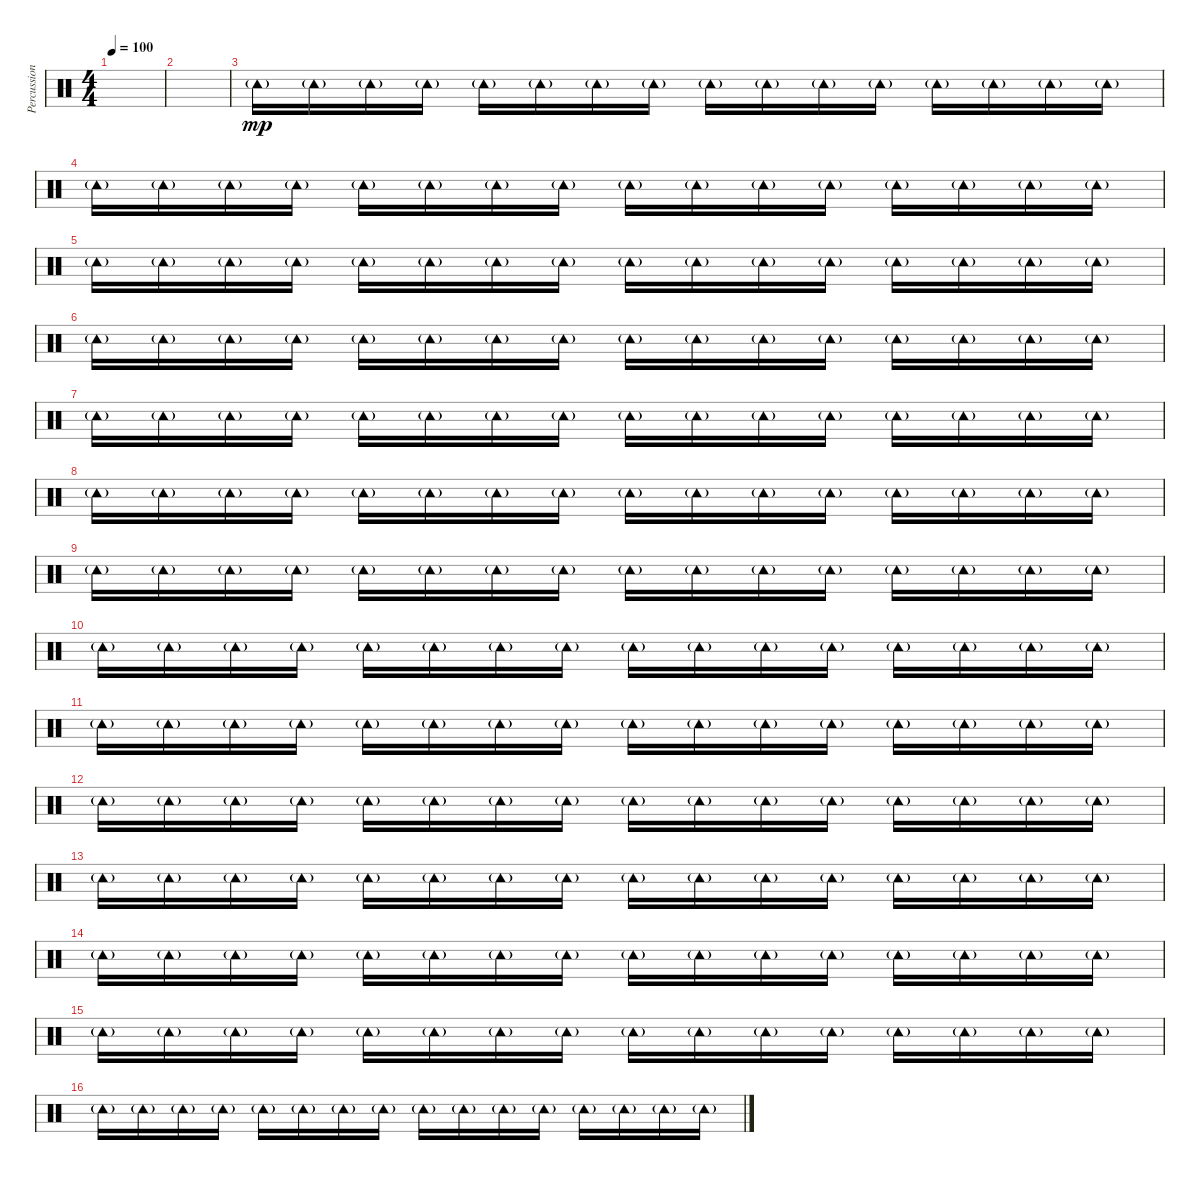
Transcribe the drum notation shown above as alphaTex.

\track ("Percussion" "Percussion") {instrument percussion}
\staff {score}
\articulation defaults
\ts (4 4)
\tempo 100
\clef neutral
\ks c
|
|
"Tambourine (hit)"{g}.16{dy mp} "Tambourine (hit)"{g}.16 "Tambourine (hit)"{g}.16 "Tambourine (hit)"{g}.16 "Tambourine (hit)"{g}.16 "Tambourine (hit)"{g}.16 "Tambourine (hit)"{g}.16 "Tambourine (hit)"{g}.16 "Tambourine (hit)"{g}.16 "Tambourine (hit)"{g}.16 "Tambourine (hit)"{g}.16 "Tambourine (hit)"{g}.16 "Tambourine (hit)"{g}.16 "Tambourine (hit)"{g}.16 "Tambourine (hit)"{g}.16 "Tambourine (hit)"{g}.16 |
"Tambourine (hit)"{g}.16 "Tambourine (hit)"{g}.16 "Tambourine (hit)"{g}.16 "Tambourine (hit)"{g}.16 "Tambourine (hit)"{g}.16 "Tambourine (hit)"{g}.16 "Tambourine (hit)"{g}.16 "Tambourine (hit)"{g}.16 "Tambourine (hit)"{g}.16 "Tambourine (hit)"{g}.16 "Tambourine (hit)"{g}.16 "Tambourine (hit)"{g}.16 "Tambourine (hit)"{g}.16 "Tambourine (hit)"{g}.16 "Tambourine (hit)"{g}.16 "Tambourine (hit)"{g}.16 |
"Tambourine (hit)"{g}.16 "Tambourine (hit)"{g}.16 "Tambourine (hit)"{g}.16 "Tambourine (hit)"{g}.16 "Tambourine (hit)"{g}.16 "Tambourine (hit)"{g}.16 "Tambourine (hit)"{g}.16 "Tambourine (hit)"{g}.16 "Tambourine (hit)"{g}.16 "Tambourine (hit)"{g}.16 "Tambourine (hit)"{g}.16 "Tambourine (hit)"{g}.16 "Tambourine (hit)"{g}.16 "Tambourine (hit)"{g}.16 "Tambourine (hit)"{g}.16 "Tambourine (hit)"{g}.16 |
"Tambourine (hit)"{g}.16 "Tambourine (hit)"{g}.16 "Tambourine (hit)"{g}.16 "Tambourine (hit)"{g}.16 "Tambourine (hit)"{g}.16 "Tambourine (hit)"{g}.16 "Tambourine (hit)"{g}.16 "Tambourine (hit)"{g}.16 "Tambourine (hit)"{g}.16 "Tambourine (hit)"{g}.16 "Tambourine (hit)"{g}.16 "Tambourine (hit)"{g}.16 "Tambourine (hit)"{g}.16 "Tambourine (hit)"{g}.16 "Tambourine (hit)"{g}.16 "Tambourine (hit)"{g}.16 |
"Tambourine (hit)"{g}.16 "Tambourine (hit)"{g}.16 "Tambourine (hit)"{g}.16 "Tambourine (hit)"{g}.16 "Tambourine (hit)"{g}.16 "Tambourine (hit)"{g}.16 "Tambourine (hit)"{g}.16 "Tambourine (hit)"{g}.16 "Tambourine (hit)"{g}.16 "Tambourine (hit)"{g}.16 "Tambourine (hit)"{g}.16 "Tambourine (hit)"{g}.16 "Tambourine (hit)"{g}.16 "Tambourine (hit)"{g}.16 "Tambourine (hit)"{g}.16 "Tambourine (hit)"{g}.16 |
"Tambourine (hit)"{g}.16 "Tambourine (hit)"{g}.16 "Tambourine (hit)"{g}.16 "Tambourine (hit)"{g}.16 "Tambourine (hit)"{g}.16 "Tambourine (hit)"{g}.16 "Tambourine (hit)"{g}.16 "Tambourine (hit)"{g}.16 "Tambourine (hit)"{g}.16 "Tambourine (hit)"{g}.16 "Tambourine (hit)"{g}.16 "Tambourine (hit)"{g}.16 "Tambourine (hit)"{g}.16 "Tambourine (hit)"{g}.16 "Tambourine (hit)"{g}.16 "Tambourine (hit)"{g}.16 |
"Tambourine (hit)"{g}.16 "Tambourine (hit)"{g}.16 "Tambourine (hit)"{g}.16 "Tambourine (hit)"{g}.16 "Tambourine (hit)"{g}.16 "Tambourine (hit)"{g}.16 "Tambourine (hit)"{g}.16 "Tambourine (hit)"{g}.16 "Tambourine (hit)"{g}.16 "Tambourine (hit)"{g}.16 "Tambourine (hit)"{g}.16 "Tambourine (hit)"{g}.16 "Tambourine (hit)"{g}.16 "Tambourine (hit)"{g}.16 "Tambourine (hit)"{g}.16 "Tambourine (hit)"{g}.16 |
"Tambourine (hit)"{g}.16 "Tambourine (hit)"{g}.16 "Tambourine (hit)"{g}.16 "Tambourine (hit)"{g}.16 "Tambourine (hit)"{g}.16 "Tambourine (hit)"{g}.16 "Tambourine (hit)"{g}.16 "Tambourine (hit)"{g}.16 "Tambourine (hit)"{g}.16 "Tambourine (hit)"{g}.16 "Tambourine (hit)"{g}.16 "Tambourine (hit)"{g}.16 "Tambourine (hit)"{g}.16 "Tambourine (hit)"{g}.16 "Tambourine (hit)"{g}.16 "Tambourine (hit)"{g}.16 |
"Tambourine (hit)"{g}.16 "Tambourine (hit)"{g}.16 "Tambourine (hit)"{g}.16 "Tambourine (hit)"{g}.16 "Tambourine (hit)"{g}.16 "Tambourine (hit)"{g}.16 "Tambourine (hit)"{g}.16 "Tambourine (hit)"{g}.16 "Tambourine (hit)"{g}.16 "Tambourine (hit)"{g}.16 "Tambourine (hit)"{g}.16 "Tambourine (hit)"{g}.16 "Tambourine (hit)"{g}.16 "Tambourine (hit)"{g}.16 "Tambourine (hit)"{g}.16 "Tambourine (hit)"{g}.16 |
"Tambourine (hit)"{g}.16 "Tambourine (hit)"{g}.16 "Tambourine (hit)"{g}.16 "Tambourine (hit)"{g}.16 "Tambourine (hit)"{g}.16 "Tambourine (hit)"{g}.16 "Tambourine (hit)"{g}.16 "Tambourine (hit)"{g}.16 "Tambourine (hit)"{g}.16 "Tambourine (hit)"{g}.16 "Tambourine (hit)"{g}.16 "Tambourine (hit)"{g}.16 "Tambourine (hit)"{g}.16 "Tambourine (hit)"{g}.16 "Tambourine (hit)"{g}.16 "Tambourine (hit)"{g}.16 |
"Tambourine (hit)"{g}.16 "Tambourine (hit)"{g}.16 "Tambourine (hit)"{g}.16 "Tambourine (hit)"{g}.16 "Tambourine (hit)"{g}.16 "Tambourine (hit)"{g}.16 "Tambourine (hit)"{g}.16 "Tambourine (hit)"{g}.16 "Tambourine (hit)"{g}.16 "Tambourine (hit)"{g}.16 "Tambourine (hit)"{g}.16 "Tambourine (hit)"{g}.16 "Tambourine (hit)"{g}.16 "Tambourine (hit)"{g}.16 "Tambourine (hit)"{g}.16 "Tambourine (hit)"{g}.16 |
"Tambourine (hit)"{g}.16 "Tambourine (hit)"{g}.16 "Tambourine (hit)"{g}.16 "Tambourine (hit)"{g}.16 "Tambourine (hit)"{g}.16 "Tambourine (hit)"{g}.16 "Tambourine (hit)"{g}.16 "Tambourine (hit)"{g}.16 "Tambourine (hit)"{g}.16 "Tambourine (hit)"{g}.16 "Tambourine (hit)"{g}.16 "Tambourine (hit)"{g}.16 "Tambourine (hit)"{g}.16 "Tambourine (hit)"{g}.16 "Tambourine (hit)"{g}.16 "Tambourine (hit)"{g}.16 |
"Tambourine (hit)"{g}.16 "Tambourine (hit)"{g}.16 "Tambourine (hit)"{g}.16 "Tambourine (hit)"{g}.16 "Tambourine (hit)"{g}.16 "Tambourine (hit)"{g}.16 "Tambourine (hit)"{g}.16 "Tambourine (hit)"{g}.16 "Tambourine (hit)"{g}.16 "Tambourine (hit)"{g}.16 "Tambourine (hit)"{g}.16 "Tambourine (hit)"{g}.16 "Tambourine (hit)"{g}.16 "Tambourine (hit)"{g}.16 "Tambourine (hit)"{g}.16 "Tambourine (hit)"{g}.16 |
"Tambourine (hit)"{g}.16 "Tambourine (hit)"{g}.16 "Tambourine (hit)"{g}.16 "Tambourine (hit)"{g}.16 "Tambourine (hit)"{g}.16 "Tambourine (hit)"{g}.16 "Tambourine (hit)"{g}.16 "Tambourine (hit)"{g}.16 "Tambourine (hit)"{g}.16 "Tambourine (hit)"{g}.16 "Tambourine (hit)"{g}.16 "Tambourine (hit)"{g}.16 "Tambourine (hit)"{g}.16 "Tambourine (hit)"{g}.16 "Tambourine (hit)"{g}.16 "Tambourine (hit)"{g}.16
